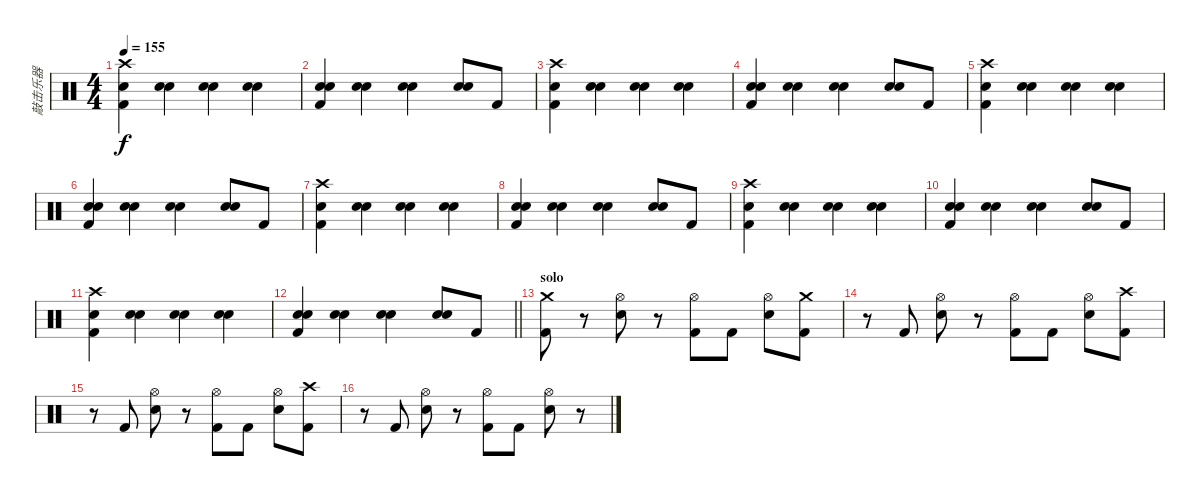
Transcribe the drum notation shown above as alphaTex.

\track ("敲击乐器" "敲击乐器") {instrument percussion}
\staff {score}
\articulation defaults
\ts (4 4)
\tempo 155
\clef neutral
\ks c
("Crash high (hit)" "Snare (hit) 2" "Kick (hit) 2").4{dy f} ("Snare (hit) 2" "Snare (hit) 2").4{bd 60} ("Snare (hit) 2" "Snare (hit) 2").4{bd 60} ("Snare (hit) 2" "Snare (hit) 2").4{bd 60} |
("Snare (hit) 2" "Snare (hit) 2" "Kick (hit) 2").4 ("Snare (hit) 2" "Snare (hit) 2").4{bd 60} ("Snare (hit) 2" "Snare (hit) 2").4{bd 60} ("Snare (hit) 2" "Snare (hit) 2").8{bd 60} "Kick (hit) 2".8 |
("Crash high (hit)" "Snare (hit) 2" "Kick (hit) 2").4 ("Snare (hit) 2" "Snare (hit) 2").4{bd 60} ("Snare (hit) 2" "Snare (hit) 2").4{bd 60} ("Snare (hit) 2" "Snare (hit) 2").4{bd 60} |
("Snare (hit) 2" "Snare (hit) 2" "Kick (hit) 2").4 ("Snare (hit) 2" "Snare (hit) 2").4{bd 60} ("Snare (hit) 2" "Snare (hit) 2").4{bd 60} ("Snare (hit) 2" "Snare (hit) 2").8{bd 60} "Kick (hit) 2".8 |
("Crash high (hit)" "Snare (hit) 2" "Kick (hit) 2").4 ("Snare (hit) 2" "Snare (hit) 2").4{bd 60} ("Snare (hit) 2" "Snare (hit) 2").4{bd 60} ("Snare (hit) 2" "Snare (hit) 2").4{bd 60} |
("Snare (hit) 2" "Snare (hit) 2" "Kick (hit) 2").4 ("Snare (hit) 2" "Snare (hit) 2").4{bd 60} ("Snare (hit) 2" "Snare (hit) 2").4{bd 60} ("Snare (hit) 2" "Snare (hit) 2").8{bd 60} "Kick (hit) 2".8 |
("Crash high (hit)" "Snare (hit) 2" "Kick (hit) 2").4 ("Snare (hit) 2" "Snare (hit) 2").4{bd 60} ("Snare (hit) 2" "Snare (hit) 2").4{bd 60} ("Snare (hit) 2" "Snare (hit) 2").4{bd 60} |
("Snare (hit) 2" "Snare (hit) 2" "Kick (hit) 2").4 ("Snare (hit) 2" "Snare (hit) 2").4{bd 60} ("Snare (hit) 2" "Snare (hit) 2").4{bd 60} ("Snare (hit) 2" "Snare (hit) 2").8{bd 60} "Kick (hit) 2".8 |
("Crash high (hit)" "Snare (hit) 2" "Kick (hit) 2").4 ("Snare (hit) 2" "Snare (hit) 2").4{bd 60} ("Snare (hit) 2" "Snare (hit) 2").4{bd 60} ("Snare (hit) 2" "Snare (hit) 2").4{bd 60} |
("Snare (hit) 2" "Snare (hit) 2" "Kick (hit) 2").4 ("Snare (hit) 2" "Snare (hit) 2").4{bd 60} ("Snare (hit) 2" "Snare (hit) 2").4{bd 60} ("Snare (hit) 2" "Snare (hit) 2").8{bd 60} "Kick (hit) 2".8 |
("Crash high (hit)" "Snare (hit) 2" "Kick (hit) 2").4 ("Snare (hit) 2" "Snare (hit) 2").4{bd 60} ("Snare (hit) 2" "Snare (hit) 2").4{bd 60} ("Snare (hit) 2" "Snare (hit) 2").4{bd 60} |
\barLineRight lightlight
("Snare (hit) 2" "Snare (hit) 2" "Kick (hit) 2").4 ("Snare (hit) 2" "Snare (hit) 2").4{bd 60} ("Snare (hit) 2" "Snare (hit) 2").4{bd 60} ("Snare (hit) 2" "Snare (hit) 2").8{bd 60} "Kick (hit) 2".8 |
\section ("" "solo")
("Crash medium (hit)" "Kick (hit) 2").8 r.8 ("Hi-Hat (open)" "Snare (hit) 2").8 r.8 ("Hi-Hat (open)" "Kick (hit) 2").8 "Kick (hit) 2".8 ("Hi-Hat (open)" "Snare (hit) 2").8 ("Crash medium (hit)" "Kick (hit) 2").8 |
r.8 "Kick (hit) 2".8 ("Hi-Hat (open)" "Snare (hit) 2").8 r.8 ("Hi-Hat (open)" "Kick (hit) 2").8 "Kick (hit) 2".8 ("Hi-Hat (open)" "Snare (hit) 2").8 ("Crash high (hit)" "Kick (hit) 2").8 |
r.8 "Kick (hit) 2".8 ("Hi-Hat (open)" "Snare (hit) 2").8 r.8 ("Hi-Hat (open)" "Kick (hit) 2").8 "Kick (hit) 2".8 ("Hi-Hat (open)" "Snare (hit) 2").8 ("Crash high (hit)" "Kick (hit) 2").8 |
r.8 "Kick (hit) 2".8 ("Hi-Hat (open)" "Snare (hit) 2").8 r.8 ("Hi-Hat (open)" "Kick (hit) 2").8 "Kick (hit) 2".8 ("Hi-Hat (open)" "Snare (hit) 2").8 r.8
